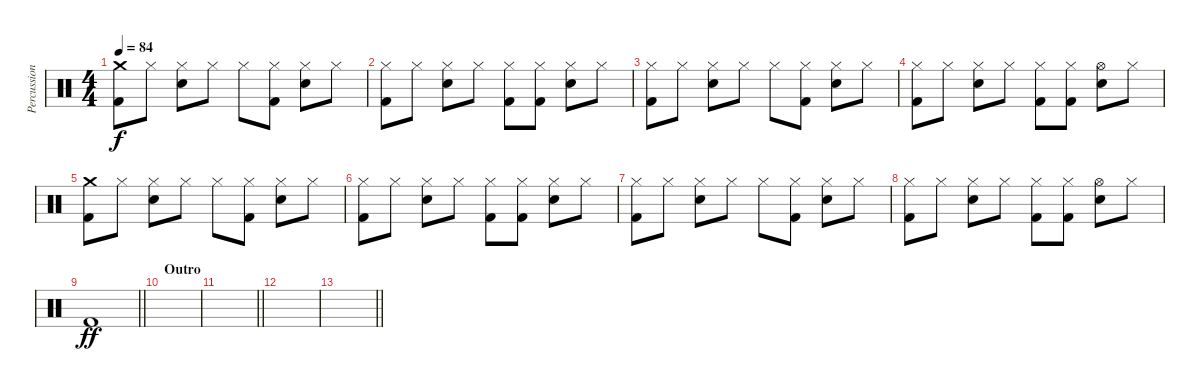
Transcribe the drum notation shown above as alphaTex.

\track ("Percussion" "Percussion") {instrument percussion}
\staff {score}
\articulation defaults
\ts (4 4)
\tempo 84
\clef neutral
\ks c
("Crash medium (hit)" "Kick (hit) 2").8{dy f} "Hi-Hat (closed)".8 ("Hi-Hat (closed)" "Electric Snare (hit)").8 "Hi-Hat (closed)".8 "Hi-Hat (closed)".8 ("Hi-Hat (closed)" "Kick (hit) 2").8 ("Hi-Hat (closed)" "Electric Snare (hit)").8 "Hi-Hat (closed)".8 |
("Hi-Hat (closed)" "Kick (hit) 2").8 "Hi-Hat (closed)".8 ("Hi-Hat (closed)" "Electric Snare (hit)").8 "Hi-Hat (closed)".8 ("Hi-Hat (closed)" "Kick (hit) 2").8 ("Hi-Hat (closed)" "Kick (hit) 2").8 ("Hi-Hat (closed)" "Electric Snare (hit)").8 "Hi-Hat (closed)".8 |
("Hi-Hat (closed)" "Kick (hit) 2").8 "Hi-Hat (closed)".8 ("Hi-Hat (closed)" "Electric Snare (hit)").8 "Hi-Hat (closed)".8 "Hi-Hat (closed)".8 ("Hi-Hat (closed)" "Kick (hit) 2").8 ("Hi-Hat (closed)" "Electric Snare (hit)").8 "Hi-Hat (closed)".8 |
("Hi-Hat (closed)" "Kick (hit) 2").8 "Hi-Hat (closed)".8 ("Hi-Hat (closed)" "Electric Snare (hit)").8 "Hi-Hat (closed)".8 ("Hi-Hat (closed)" "Kick (hit) 2").8 ("Hi-Hat (closed)" "Kick (hit) 2").8 ("Hi-Hat (open)" "Electric Snare (hit)").8 "Hi-Hat (closed)".8 |
("Crash medium (hit)" "Kick (hit) 2").8 "Hi-Hat (closed)".8 ("Hi-Hat (closed)" "Electric Snare (hit)").8 "Hi-Hat (closed)".8 "Hi-Hat (closed)".8 ("Hi-Hat (closed)" "Kick (hit) 2").8 ("Hi-Hat (closed)" "Electric Snare (hit)").8 "Hi-Hat (closed)".8 |
("Hi-Hat (closed)" "Kick (hit) 2").8 "Hi-Hat (closed)".8 ("Hi-Hat (closed)" "Electric Snare (hit)").8 "Hi-Hat (closed)".8 ("Hi-Hat (closed)" "Kick (hit) 2").8 ("Hi-Hat (closed)" "Kick (hit) 2").8 ("Hi-Hat (closed)" "Electric Snare (hit)").8 "Hi-Hat (closed)".8 |
("Hi-Hat (closed)" "Kick (hit) 2").8 "Hi-Hat (closed)".8 ("Hi-Hat (closed)" "Electric Snare (hit)").8 "Hi-Hat (closed)".8 "Hi-Hat (closed)".8 ("Hi-Hat (closed)" "Kick (hit) 2").8 ("Hi-Hat (closed)" "Electric Snare (hit)").8 "Hi-Hat (closed)".8 |
("Hi-Hat (closed)" "Kick (hit) 2").8 "Hi-Hat (closed)".8 ("Hi-Hat (closed)" "Electric Snare (hit)").8 "Hi-Hat (closed)".8 ("Hi-Hat (closed)" "Kick (hit) 2").8 ("Hi-Hat (closed)" "Kick (hit) 2").8 ("Hi-Hat (open)" "Electric Snare (hit)").8 "Hi-Hat (closed)".8 |
\barLineRight lightlight "Kick (hit) 2".1{dy ff}
|
\section ("" "Outro")
|
\barLineRight lightlight
|
|
\barLineRight lightlight
